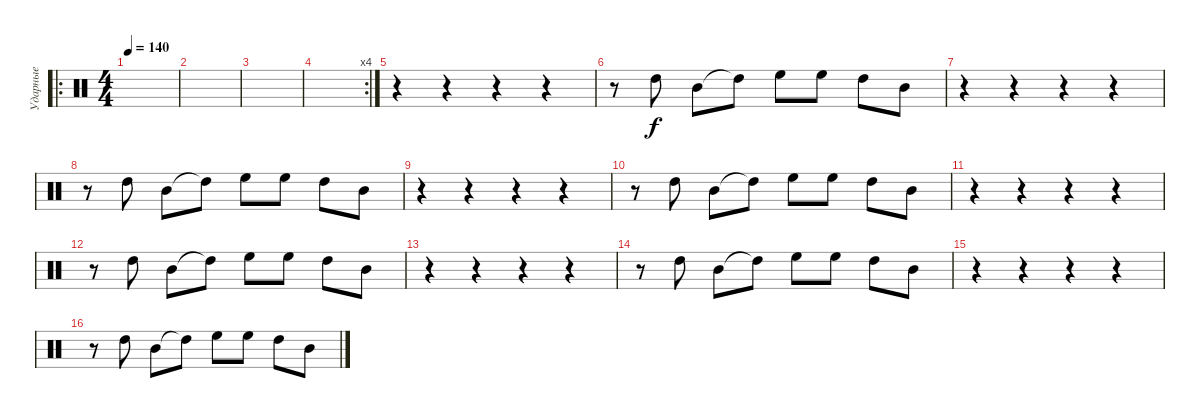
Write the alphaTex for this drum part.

\track ("Ударные" "Ударные") {instrument percussion}
\staff {score}
\articulation defaults
\ro
\ts (4 4)
\tempo 140
\clef neutral
\ks c
|
|
|
\rc 4
|
r.4 r.4 r.4 r.4 |
r.8 "High Tom (hit)".8 "Mid Tom (hit)".8 "High Tom (hit)"{t}.8 "High Floor Tom (hit)".8 "High Floor Tom (hit)".8 "High Tom (hit)".8 "Mid Tom (hit)".8 |
r.4 r.4 r.4 r.4 |
r.8 "High Tom (hit)".8 "Mid Tom (hit)".8 "High Tom (hit)"{t}.8 "High Floor Tom (hit)".8 "High Floor Tom (hit)".8 "High Tom (hit)".8 "Mid Tom (hit)".8 |
r.4 r.4 r.4 r.4 |
r.8 "High Tom (hit)".8 "Mid Tom (hit)".8 "High Tom (hit)"{t}.8 "High Floor Tom (hit)".8 "High Floor Tom (hit)".8 "High Tom (hit)".8 "Mid Tom (hit)".8 |
r.4 r.4 r.4 r.4 |
r.8 "High Tom (hit)".8 "Mid Tom (hit)".8 "High Tom (hit)"{t}.8 "High Floor Tom (hit)".8 "High Floor Tom (hit)".8 "High Tom (hit)".8 "Mid Tom (hit)".8 |
r.4 r.4 r.4 r.4 |
r.8 "High Tom (hit)".8 "Mid Tom (hit)".8 "High Tom (hit)"{t}.8 "High Floor Tom (hit)".8 "High Floor Tom (hit)".8 "High Tom (hit)".8 "Mid Tom (hit)".8 |
r.4 r.4 r.4 r.4 |
r.8 "High Tom (hit)".8 "Mid Tom (hit)".8 "High Tom (hit)"{t}.8 "High Floor Tom (hit)".8 "High Floor Tom (hit)".8 "High Tom (hit)".8 "Mid Tom (hit)".8
